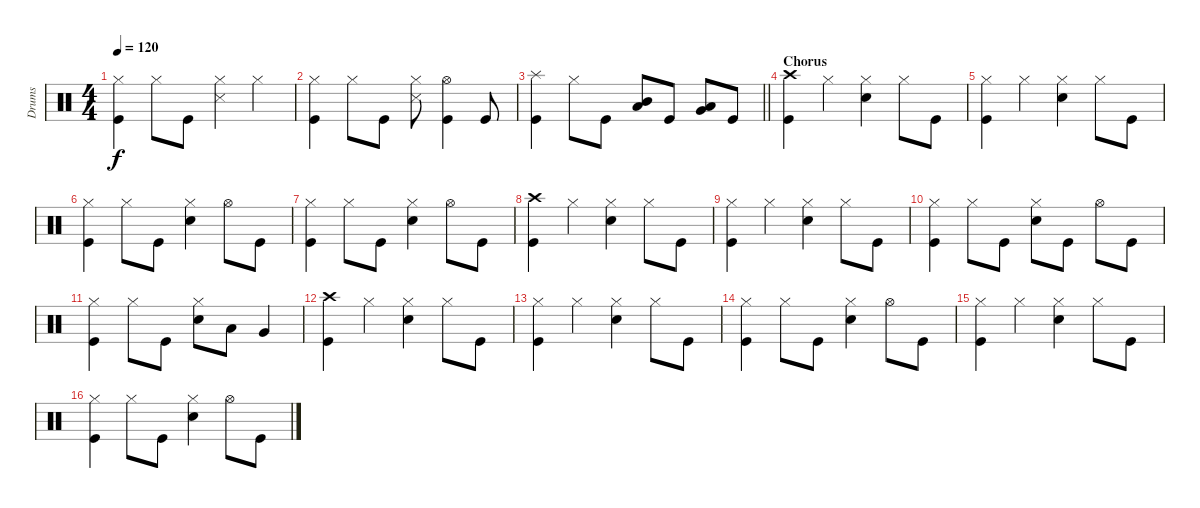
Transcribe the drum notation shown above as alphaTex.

\track ("Drums" "Drums") {instrument percussion}
\staff {score}
\articulation defaults
\ts (4 4)
\tempo 120
\clef neutral
\ks c
("Kick (hit)" "Hi-Hat (closed)").4{dy f} "Hi-Hat (closed)".8 "Kick (hit)".8 ("Snare (side stick) 3" "Hi-Hat (closed)").4 "Hi-Hat (closed)".4 |
("Kick (hit)" "Hi-Hat (closed)").4 "Hi-Hat (closed)".8 "Kick (hit)".8 ("Snare (side stick) 3" "Hi-Hat (closed)").8 ("Kick (hit)" "Hi-Hat (open)").4 "Kick (hit)".8 |
\barLineRight lightlight
("Kick (hit)" "Splash (hit)").4 "Hi-Hat (closed)".8 "Kick (hit)".8 ("Low Tom (hit)" "Mid Tom (hit)").8 "Kick (hit)".8 ("Very Low Tom (hit)" "Low Tom (hit)").8 "Kick (hit)".8 |
\section ("" "Chorus")
("Kick (hit)" "Crash high (hit)").4 "Hi-Hat (closed)".4 ("Snare (hit) 2" "Hi-Hat (closed)").4 "Hi-Hat (closed)".8 "Kick (hit)".8 |
("Kick (hit)" "Hi-Hat (closed)").4 "Hi-Hat (closed)".4 ("Snare (hit) 2" "Hi-Hat (closed)").4 "Hi-Hat (closed)".8 "Kick (hit)".8 |
("Kick (hit)" "Hi-Hat (closed)").4 "Hi-Hat (closed)".8 "Kick (hit)".8 ("Snare (hit) 2" "Hi-Hat (closed)").4 "Hi-Hat (open)".8 "Kick (hit)".8 |
("Kick (hit)" "Hi-Hat (closed)").4 "Hi-Hat (closed)".8 "Kick (hit)".8 ("Snare (hit) 2" "Hi-Hat (closed)").4 "Hi-Hat (open)".8 "Kick (hit)".8 |
("Kick (hit)" "Crash high (hit)").4 "Hi-Hat (closed)".4 ("Snare (hit) 2" "Hi-Hat (closed)").4 "Hi-Hat (closed)".8 "Kick (hit)".8 |
("Kick (hit)" "Hi-Hat (closed)").4 "Hi-Hat (closed)".4 ("Snare (hit) 2" "Hi-Hat (closed)").4 "Hi-Hat (closed)".8 "Kick (hit)".8 |
("Kick (hit)" "Hi-Hat (closed)").4 "Hi-Hat (closed)".8 "Kick (hit)".8 ("Snare (hit) 2" "Hi-Hat (closed)").8 "Kick (hit)".8 "Hi-Hat (open)".8 "Kick (hit)".8 |
("Kick (hit)" "Hi-Hat (closed)").4 "Hi-Hat (closed)".8 "Kick (hit)".8 ("Snare (hit) 2" "Hi-Hat (closed)").8 "Low Tom (hit)".8 "Very Low Tom (hit)".4 |
("Kick (hit)" "Crash high (hit)").4 "Hi-Hat (closed)".4 ("Snare (hit) 2" "Hi-Hat (closed)").4 "Hi-Hat (closed)".8 "Kick (hit)".8 |
("Kick (hit)" "Hi-Hat (closed)").4 "Hi-Hat (closed)".4 ("Snare (hit) 2" "Hi-Hat (closed)").4 "Hi-Hat (closed)".8 "Kick (hit)".8 |
("Kick (hit)" "Hi-Hat (closed)").4 "Hi-Hat (closed)".8 "Kick (hit)".8 ("Snare (hit) 2" "Hi-Hat (closed)").4 "Hi-Hat (open)".8 "Kick (hit)".8 |
("Kick (hit)" "Hi-Hat (closed)").4 "Hi-Hat (closed)".4 ("Snare (hit) 2" "Hi-Hat (closed)").4 "Hi-Hat (closed)".8 "Kick (hit)".8 |
("Kick (hit)" "Hi-Hat (closed)").4 "Hi-Hat (closed)".8 "Kick (hit)".8 ("Snare (hit) 2" "Hi-Hat (closed)").4 "Hi-Hat (open)".8 "Kick (hit)".8
